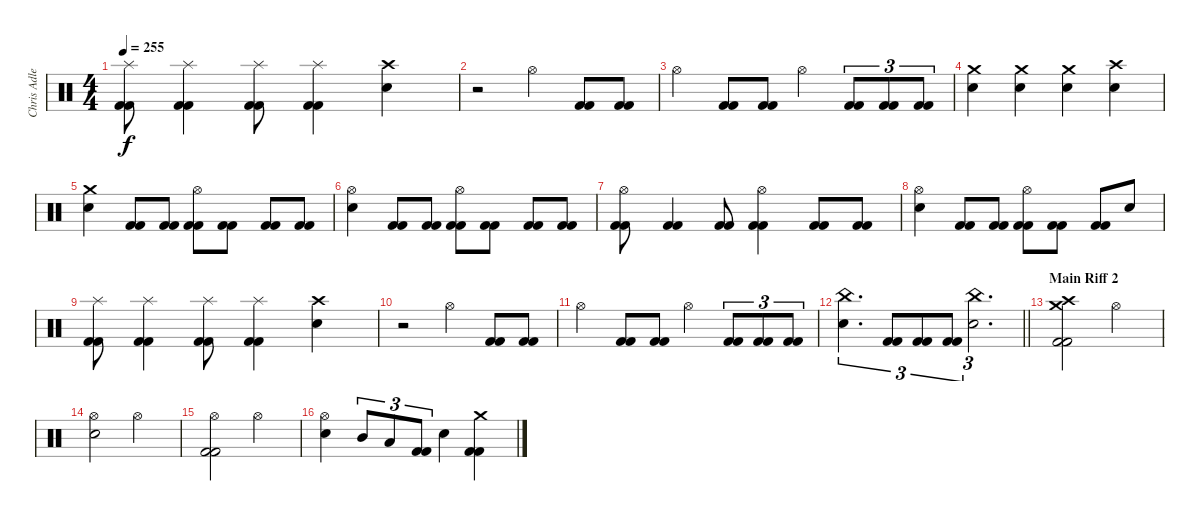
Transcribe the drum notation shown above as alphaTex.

\track ("Chris Adler" "Chris Adle") {instrument percussion}
\staff {score}
\articulation defaults
\ts (4 4)
\tempo 255
\clef neutral
\ks c
("Splash (hit)" "Kick (hit) 2" "Kick (hit) 2").8{dy f} ("Splash (hit)" "Kick (hit) 2" "Kick (hit) 2").4 ("Splash (hit)" "Kick (hit) 2" "Kick (hit) 2").8 ("Splash (hit)" "Kick (hit) 2" "Kick (hit) 2").4 ("Crash high (hit)" "Electric Snare (hit)").4 |
r.2 "Hi-Hat (open)".4 ("Kick (hit) 2" "Kick (hit) 2").8 ("Kick (hit) 2" "Kick (hit) 2").8 |
"Hi-Hat (open)".4 ("Kick (hit) 2" "Kick (hit) 2").8 ("Kick (hit) 2" "Kick (hit) 2").8 "Hi-Hat (open)".4 ("Kick (hit) 2" "Kick (hit) 2").8{tu (3 2)} ("Kick (hit) 2" "Kick (hit) 2").8{tu (3 2)} ("Kick (hit) 2" "Kick (hit) 2").8{tu (3 2)} |
("Crash medium (hit)" "Electric Snare (hit)").4 ("Crash medium (hit)" "Electric Snare (hit)").4 ("Crash medium (hit)" "Electric Snare (hit)").4 ("Crash high (hit)" "Electric Snare (hit)").4 |
("Crash medium (hit)" "Electric Snare (hit)").4 ("Kick (hit) 2" "Kick (hit) 2").8 ("Kick (hit) 2" "Kick (hit) 2").8 ("Hi-Hat (open)" "Kick (hit) 2" "Kick (hit) 2").8 ("Kick (hit) 2" "Kick (hit) 2").8 ("Kick (hit) 2" "Kick (hit) 2").8 ("Kick (hit) 2" "Kick (hit) 2").8 |
("Hi-Hat (open)" "Electric Snare (hit)").4 ("Kick (hit) 2" "Kick (hit) 2").8 ("Kick (hit) 2" "Kick (hit) 2").8 ("Hi-Hat (open)" "Kick (hit) 2" "Kick (hit) 2").8 ("Kick (hit) 2" "Kick (hit) 2").8 ("Kick (hit) 2" "Kick (hit) 2").8 ("Kick (hit) 2" "Kick (hit) 2").8 |
("Hi-Hat (open)" "Kick (hit) 2" "Kick (hit) 2").8 ("Kick (hit) 2" "Kick (hit) 2").4 ("Kick (hit) 2" "Kick (hit) 2").8 ("Hi-Hat (open)" "Kick (hit) 2" "Kick (hit) 2").4 ("Kick (hit) 2" "Kick (hit) 2").8 ("Kick (hit) 2" "Kick (hit) 2").8 |
("Hi-Hat (open)" "Electric Snare (hit)").4 ("Kick (hit) 2" "Kick (hit) 2").8 ("Kick (hit) 2" "Kick (hit) 2").8 ("Hi-Hat (open)" "Kick (hit) 2" "Kick (hit) 2").8 ("Kick (hit) 2" "Kick (hit) 2").8 ("Kick (hit) 2" "Kick (hit) 2").8 "Electric Snare (hit)".8 |
("Splash (hit)" "Kick (hit) 2" "Kick (hit) 2").8 ("Splash (hit)" "Kick (hit) 2" "Kick (hit) 2").4 ("Splash (hit)" "Kick (hit) 2" "Kick (hit) 2").8 ("Splash (hit)" "Kick (hit) 2" "Kick (hit) 2").4 ("Crash high (hit)" "Electric Snare (hit)").4 |
r.2 "Hi-Hat (open)".4 ("Kick (hit) 2" "Kick (hit) 2").8 ("Kick (hit) 2" "Kick (hit) 2").8 |
"Hi-Hat (open)".4 ("Kick (hit) 2" "Kick (hit) 2").8 ("Kick (hit) 2" "Kick (hit) 2").8 "Hi-Hat (open)".4 ("Kick (hit) 2" "Kick (hit) 2").8{tu (3 2)} ("Kick (hit) 2" "Kick (hit) 2").8{tu (3 2)} ("Kick (hit) 2" "Kick (hit) 2").8{tu (3 2)} |
\barLineRight lightlight
("China (hit)" "Electric Snare (hit)").4{d tu (3 2)} ("Kick (hit) 2" "Kick (hit) 2").8{tu (3 2)} ("Kick (hit) 2" "Kick (hit) 2").8{tu (3 2)} ("Kick (hit) 2" "Kick (hit) 2").8{tu (3 2)} ("China (hit)" "Electric Snare (hit)").2{d tu (3 2)} |
\section ("" "Main Riff 2")
("Crash medium (hit)" "Crash high (hit)" "Kick (hit) 2" "Kick (hit) 2").2 "Hi-Hat (open)".2 |
("Hi-Hat (open)" "Electric Snare (hit)").2 "Hi-Hat (open)".2 |
("Hi-Hat (open)" "Kick (hit) 2" "Kick (hit) 2").2 "Hi-Hat (open)".2 |
("Hi-Hat (open)" "Electric Snare (hit)").4 "Mid Tom (hit)".8{tu (3 2)} "Low Tom (hit)".8{tu (3 2)} ("Kick (hit) 2" "Kick (hit) 2").8{tu (3 2)} "Electric Snare (hit)".4 ("Crash medium (hit)" "Kick (hit) 2" "Kick (hit) 2").4
